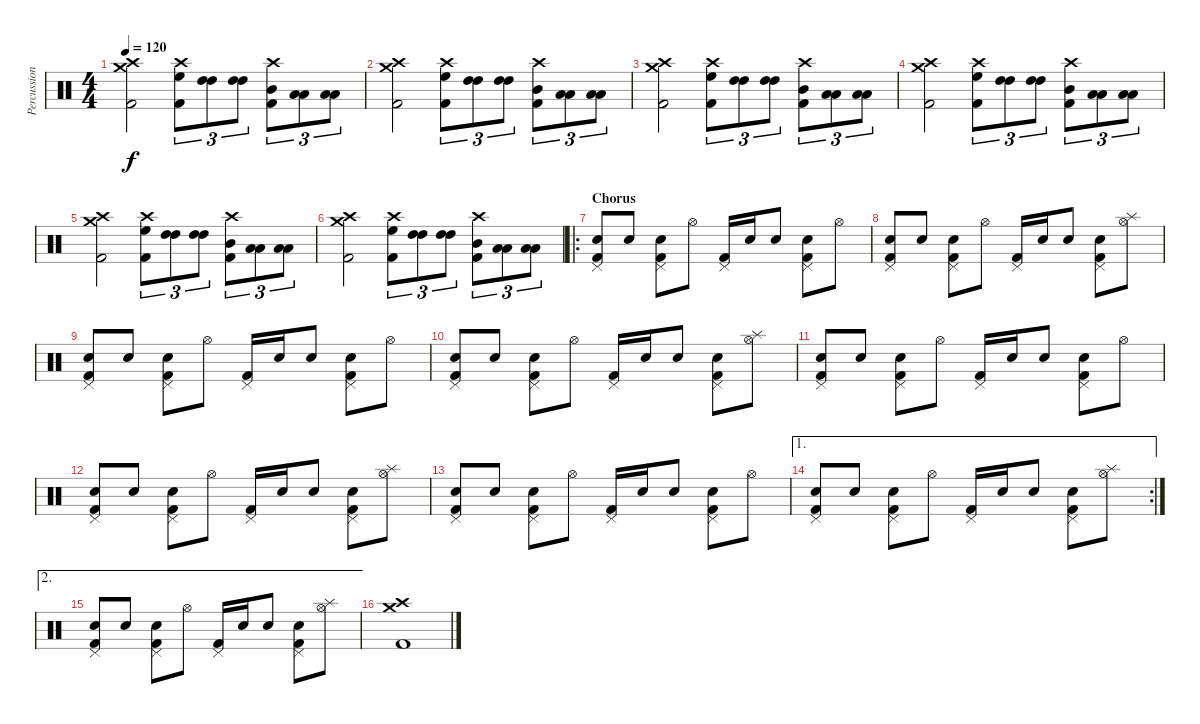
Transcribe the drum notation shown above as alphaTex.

\track ("Percussion" "Percussion") {instrument percussion}
\staff {score}
\articulation defaults
\ts (4 4)
\tempo 120
\clef neutral
\ks c
("Crash medium (hit)" "Crash high (hit)" "Kick (hit) 2").2{dy f} ("High Floor Tom (hit)" "Crash high (hit)" "Kick (hit) 2").8{tu (3 2)} ("High Tom (hit)" "High Tom (hit)").8{tu (3 2)} ("High Tom (hit)" "High Tom (hit)").8{tu (3 2)} ("Mid Tom (hit)" "Crash high (hit)" "Kick (hit) 2").8{tu (3 2)} ("Low Tom (hit)" "Low Tom (hit)").8{tu (3 2)} ("Low Tom (hit)" "Low Tom (hit)").8{tu (3 2)} |
("Crash medium (hit)" "Crash high (hit)" "Kick (hit) 2").2 ("High Floor Tom (hit)" "Crash high (hit)" "Kick (hit) 2").8{tu (3 2)} ("High Tom (hit)" "High Tom (hit)").8{tu (3 2)} ("High Tom (hit)" "High Tom (hit)").8{tu (3 2)} ("Mid Tom (hit)" "Crash high (hit)" "Kick (hit) 2").8{tu (3 2)} ("Low Tom (hit)" "Low Tom (hit)").8{tu (3 2)} ("Low Tom (hit)" "Low Tom (hit)").8{tu (3 2)} |
("Crash medium (hit)" "Crash high (hit)" "Kick (hit) 2").2 ("High Floor Tom (hit)" "Crash high (hit)" "Kick (hit) 2").8{tu (3 2)} ("High Tom (hit)" "High Tom (hit)").8{tu (3 2)} ("High Tom (hit)" "High Tom (hit)").8{tu (3 2)} ("Mid Tom (hit)" "Crash high (hit)" "Kick (hit) 2").8{tu (3 2)} ("Low Tom (hit)" "Low Tom (hit)").8{tu (3 2)} ("Low Tom (hit)" "Low Tom (hit)").8{tu (3 2)} |
("Crash medium (hit)" "Crash high (hit)" "Kick (hit) 2").2 ("High Floor Tom (hit)" "Crash high (hit)" "Kick (hit) 2").8{tu (3 2)} ("High Tom (hit)" "High Tom (hit)").8{tu (3 2)} ("High Tom (hit)" "High Tom (hit)").8{tu (3 2)} ("Mid Tom (hit)" "Crash high (hit)" "Kick (hit) 2").8{tu (3 2)} ("Low Tom (hit)" "Low Tom (hit)").8{tu (3 2)} ("Low Tom (hit)" "Low Tom (hit)").8{tu (3 2)} |
("Crash medium (hit)" "Crash high (hit)" "Kick (hit) 2").2 ("High Floor Tom (hit)" "Crash high (hit)" "Kick (hit) 2").8{tu (3 2)} ("High Tom (hit)" "High Tom (hit)").8{tu (3 2)} ("High Tom (hit)" "High Tom (hit)").8{tu (3 2)} ("Mid Tom (hit)" "Crash high (hit)" "Kick (hit) 2").8{tu (3 2)} ("Low Tom (hit)" "Low Tom (hit)").8{tu (3 2)} ("Low Tom (hit)" "Low Tom (hit)").8{tu (3 2)} |
("Crash medium (hit)" "Crash high (hit)" "Kick (hit) 2").2 ("High Floor Tom (hit)" "Crash high (hit)" "Kick (hit) 2").8{tu (3 2)} ("High Tom (hit)" "High Tom (hit)").8{tu (3 2)} ("High Tom (hit)" "High Tom (hit)").8{tu (3 2)} ("Mid Tom (hit)" "Crash high (hit)" "Kick (hit) 2").8{tu (3 2)} ("Low Tom (hit)" "Low Tom (hit)").8{tu (3 2)} ("Low Tom (hit)" "Low Tom (hit)").8{tu (3 2)} |
\ro
\section ("" "Chorus")
("Kick (hit) 2" "Pedal Hi-Hat (hit)" "Snare (hit) 2").8 "Snare (hit) 2".8 ("Kick (hit) 2" "Pedal Hi-Hat (hit)" "Electric Snare (hit)").8 "Hi-Hat (open)".8 ("Kick (hit) 2" "Pedal Hi-Hat (hit)").16 "Electric Snare (hit)".16 "Snare (hit) 2".8 ("Kick (hit) 2" "Pedal Hi-Hat (hit)" "Electric Snare (hit)").8 "Hi-Hat (open)".8 |
("Kick (hit) 2" "Pedal Hi-Hat (hit)" "Snare (hit) 2").8 "Snare (hit) 2".8 ("Kick (hit) 2" "Pedal Hi-Hat (hit)" "Electric Snare (hit)").8 "Hi-Hat (open)".8 ("Kick (hit) 2" "Pedal Hi-Hat (hit)").16 "Electric Snare (hit)".16 "Snare (hit) 2".8 ("Kick (hit) 2" "Pedal Hi-Hat (hit)" "Electric Snare (hit)").8 ("Hi-Hat (open)" "Splash (hit)").8 |
("Kick (hit) 2" "Pedal Hi-Hat (hit)" "Snare (hit) 2").8 "Snare (hit) 2".8 ("Kick (hit) 2" "Pedal Hi-Hat (hit)" "Electric Snare (hit)").8 "Hi-Hat (open)".8 ("Kick (hit) 2" "Pedal Hi-Hat (hit)").16 "Electric Snare (hit)".16 "Snare (hit) 2".8 ("Kick (hit) 2" "Pedal Hi-Hat (hit)" "Electric Snare (hit)").8 "Hi-Hat (open)".8 |
("Kick (hit) 2" "Pedal Hi-Hat (hit)" "Snare (hit) 2").8 "Snare (hit) 2".8 ("Kick (hit) 2" "Pedal Hi-Hat (hit)" "Electric Snare (hit)").8 "Hi-Hat (open)".8 ("Kick (hit) 2" "Pedal Hi-Hat (hit)").16 "Electric Snare (hit)".16 "Snare (hit) 2".8 ("Kick (hit) 2" "Pedal Hi-Hat (hit)" "Electric Snare (hit)").8 ("Hi-Hat (open)" "Splash (hit)").8 |
("Kick (hit) 2" "Pedal Hi-Hat (hit)" "Snare (hit) 2").8 "Snare (hit) 2".8 ("Kick (hit) 2" "Pedal Hi-Hat (hit)" "Electric Snare (hit)").8 "Hi-Hat (open)".8 ("Kick (hit) 2" "Pedal Hi-Hat (hit)").16 "Electric Snare (hit)".16 "Snare (hit) 2".8 ("Kick (hit) 2" "Pedal Hi-Hat (hit)" "Electric Snare (hit)").8 "Hi-Hat (open)".8 |
("Kick (hit) 2" "Pedal Hi-Hat (hit)" "Snare (hit) 2").8 "Snare (hit) 2".8 ("Kick (hit) 2" "Pedal Hi-Hat (hit)" "Electric Snare (hit)").8 "Hi-Hat (open)".8 ("Kick (hit) 2" "Pedal Hi-Hat (hit)").16 "Electric Snare (hit)".16 "Snare (hit) 2".8 ("Kick (hit) 2" "Pedal Hi-Hat (hit)" "Electric Snare (hit)").8 ("Hi-Hat (open)" "Splash (hit)").8 |
("Kick (hit) 2" "Pedal Hi-Hat (hit)" "Snare (hit) 2").8 "Snare (hit) 2".8 ("Kick (hit) 2" "Pedal Hi-Hat (hit)" "Electric Snare (hit)").8 "Hi-Hat (open)".8 ("Kick (hit) 2" "Pedal Hi-Hat (hit)").16 "Electric Snare (hit)".16 "Snare (hit) 2".8 ("Kick (hit) 2" "Pedal Hi-Hat (hit)" "Electric Snare (hit)").8 "Hi-Hat (open)".8 |
\ae 1
\rc 2
("Kick (hit) 2" "Pedal Hi-Hat (hit)" "Snare (hit) 2").8 "Snare (hit) 2".8 ("Kick (hit) 2" "Pedal Hi-Hat (hit)" "Electric Snare (hit)").8 "Hi-Hat (open)".8 ("Kick (hit) 2" "Pedal Hi-Hat (hit)").16 "Electric Snare (hit)".16 "Snare (hit) 2".8 ("Kick (hit) 2" "Pedal Hi-Hat (hit)" "Electric Snare (hit)").8 ("Hi-Hat (open)" "Splash (hit)").8 |
\ae 2
("Kick (hit) 2" "Pedal Hi-Hat (hit)" "Snare (hit) 2").8 "Snare (hit) 2".8 ("Kick (hit) 2" "Pedal Hi-Hat (hit)" "Electric Snare (hit)").8 "Hi-Hat (open)".8 ("Kick (hit) 2" "Pedal Hi-Hat (hit)").16 "Electric Snare (hit)".16 "Snare (hit) 2".8 ("Kick (hit) 2" "Pedal Hi-Hat (hit)" "Electric Snare (hit)").8 ("Hi-Hat (open)" "Splash (hit)").8 |
("Crash medium (hit)" "Crash high (hit)" "Kick (hit) 2").1
